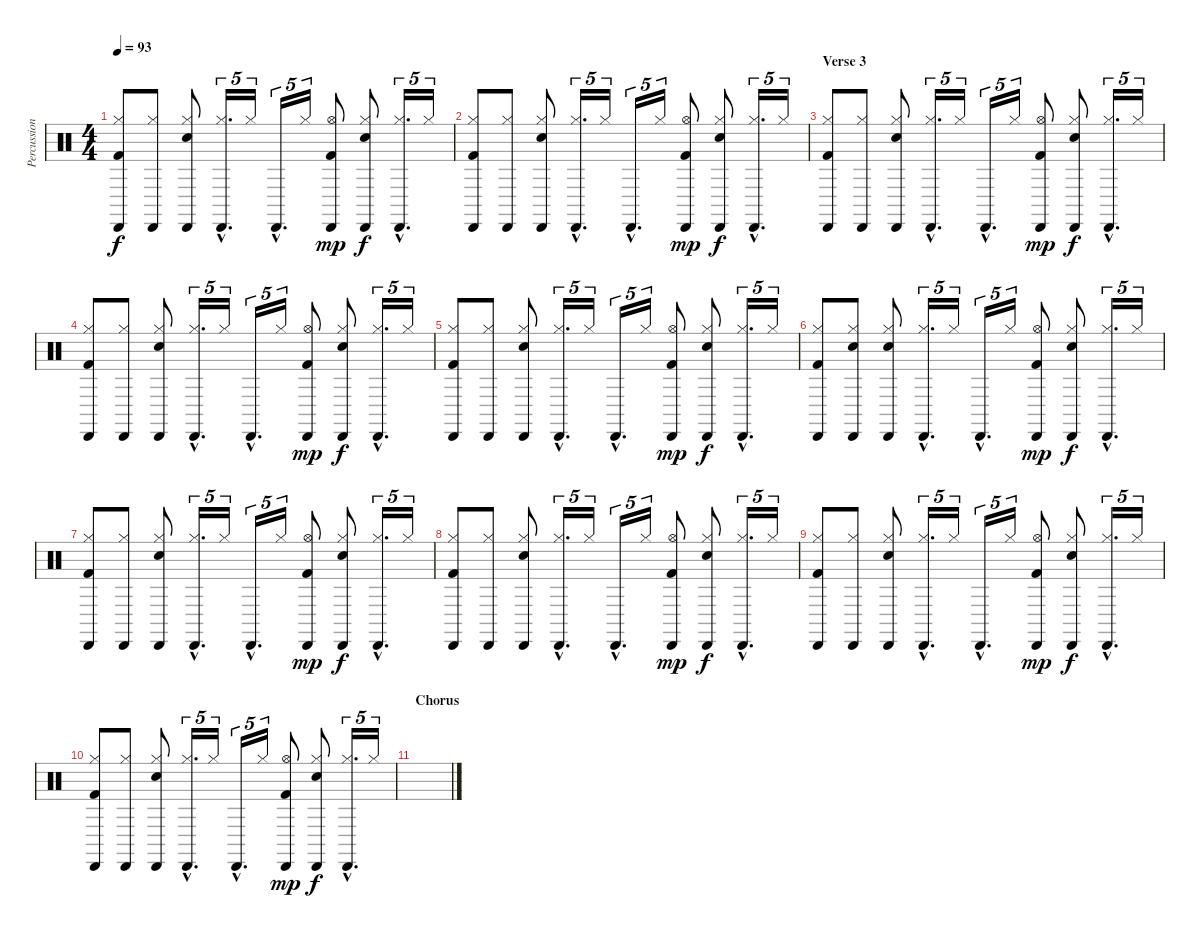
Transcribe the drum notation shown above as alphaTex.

\track ("Percussion" "Percussion") {instrument percussion}
\staff {score}
\articulation defaults
\ts (4 4)
\tempo 93
\clef neutral
\ks c
("Cabasa (hit)" "Hi-Hat (closed)" "Kick (hit) 2").8{dy f} ("Cabasa (hit)" "Hi-Hat (closed)").8 ("Cabasa (hit)" "Hi-Hat (closed)" "Snare (hit) 2").8 ("Cabasa (hit)"{hac} "Hi-Hat (closed)"{hac}).16{d tu (5 4)} "Hi-Hat (closed)".16{tu (5 4)} "Cabasa (hit)"{hac}.16{d tu (5 4)} "Hi-Hat (closed)".16{tu (5 4)} ("Cabasa (hit)" "Hi-Hat (open)" "Kick (hit) 2").8{dy mp} ("Cabasa (hit)" "Hi-Hat (closed)" "Snare (hit) 2").8{dy f} ("Cabasa (hit)"{hac} "Hi-Hat (closed)"{hac}).16{d tu (5 4)} "Hi-Hat (closed)".16{tu (5 4)} |
("Cabasa (hit)" "Hi-Hat (closed)" "Kick (hit) 2").8 ("Cabasa (hit)" "Hi-Hat (closed)").8 ("Cabasa (hit)" "Hi-Hat (closed)" "Snare (hit) 2").8 ("Cabasa (hit)"{hac} "Hi-Hat (closed)"{hac}).16{d tu (5 4)} "Hi-Hat (closed)".16{tu (5 4)} "Cabasa (hit)"{hac}.16{d tu (5 4)} "Hi-Hat (closed)".16{tu (5 4)} ("Cabasa (hit)" "Hi-Hat (open)" "Kick (hit) 2").8{dy mp} ("Cabasa (hit)" "Hi-Hat (closed)" "Snare (hit) 2").8{dy f} ("Cabasa (hit)"{hac} "Hi-Hat (closed)"{hac}).16{d tu (5 4)} "Hi-Hat (closed)".16{tu (5 4)} |
\section ("" "Verse 3")
("Cabasa (hit)" "Hi-Hat (closed)" "Kick (hit) 2").8 ("Cabasa (hit)" "Hi-Hat (closed)").8 ("Cabasa (hit)" "Hi-Hat (closed)" "Snare (hit) 2").8 ("Cabasa (hit)"{hac} "Hi-Hat (closed)"{hac}).16{d tu (5 4)} "Hi-Hat (closed)".16{tu (5 4)} "Cabasa (hit)"{hac}.16{d tu (5 4)} "Hi-Hat (closed)".16{tu (5 4)} ("Cabasa (hit)" "Hi-Hat (open)" "Kick (hit) 2").8{dy mp} ("Cabasa (hit)" "Hi-Hat (closed)" "Snare (hit) 2").8{dy f} ("Cabasa (hit)"{hac} "Hi-Hat (closed)"{hac}).16{d tu (5 4)} "Hi-Hat (closed)".16{tu (5 4)} |
("Cabasa (hit)" "Hi-Hat (closed)" "Kick (hit) 2").8 ("Cabasa (hit)" "Hi-Hat (closed)").8 ("Cabasa (hit)" "Hi-Hat (closed)" "Snare (hit) 2").8 ("Cabasa (hit)"{hac} "Hi-Hat (closed)"{hac}).16{d tu (5 4)} "Hi-Hat (closed)".16{tu (5 4)} "Cabasa (hit)"{hac}.16{d tu (5 4)} "Hi-Hat (closed)".16{tu (5 4)} ("Cabasa (hit)" "Hi-Hat (open)" "Kick (hit) 2").8{dy mp} ("Cabasa (hit)" "Hi-Hat (closed)" "Snare (hit) 2").8{dy f} ("Cabasa (hit)"{hac} "Hi-Hat (closed)"{hac}).16{d tu (5 4)} "Hi-Hat (closed)".16{tu (5 4)} |
("Cabasa (hit)" "Hi-Hat (closed)" "Kick (hit) 2").8 ("Cabasa (hit)" "Hi-Hat (closed)").8 ("Cabasa (hit)" "Hi-Hat (closed)" "Snare (hit) 2").8 ("Cabasa (hit)"{hac} "Hi-Hat (closed)"{hac}).16{d tu (5 4)} "Hi-Hat (closed)".16{tu (5 4)} "Cabasa (hit)"{hac}.16{d tu (5 4)} "Hi-Hat (closed)".16{tu (5 4)} ("Cabasa (hit)" "Hi-Hat (open)" "Kick (hit) 2").8{dy mp} ("Cabasa (hit)" "Hi-Hat (closed)" "Snare (hit) 2").8{dy f} ("Cabasa (hit)"{hac} "Hi-Hat (closed)"{hac}).16{d tu (5 4)} "Hi-Hat (closed)".16{tu (5 4)} |
("Cabasa (hit)" "Hi-Hat (closed)" "Kick (hit) 2").8 ("Cabasa (hit)" "Hi-Hat (closed)" "Snare (hit) 2").8 ("Cabasa (hit)" "Hi-Hat (closed)" "Snare (hit) 2").8 ("Cabasa (hit)"{hac} "Hi-Hat (closed)"{hac}).16{d tu (5 4)} "Hi-Hat (closed)".16{tu (5 4)} "Cabasa (hit)"{hac}.16{d tu (5 4)} "Hi-Hat (closed)".16{tu (5 4)} ("Cabasa (hit)" "Hi-Hat (open)" "Kick (hit) 2").8{dy mp} ("Cabasa (hit)" "Hi-Hat (closed)" "Snare (hit) 2").8{dy f} ("Cabasa (hit)"{hac} "Hi-Hat (closed)"{hac}).16{d tu (5 4)} "Hi-Hat (closed)".16{tu (5 4)} |
("Cabasa (hit)" "Hi-Hat (closed)" "Kick (hit) 2").8 ("Cabasa (hit)" "Hi-Hat (closed)").8 ("Cabasa (hit)" "Hi-Hat (closed)" "Snare (hit) 2").8 ("Cabasa (hit)"{hac} "Hi-Hat (closed)"{hac}).16{d tu (5 4)} "Hi-Hat (closed)".16{tu (5 4)} "Cabasa (hit)"{hac}.16{d tu (5 4)} "Hi-Hat (closed)".16{tu (5 4)} ("Cabasa (hit)" "Hi-Hat (open)" "Kick (hit) 2").8{dy mp} ("Cabasa (hit)" "Hi-Hat (closed)" "Snare (hit) 2").8{dy f} ("Cabasa (hit)"{hac} "Hi-Hat (closed)"{hac}).16{d tu (5 4)} "Hi-Hat (closed)".16{tu (5 4)} |
("Cabasa (hit)" "Hi-Hat (closed)" "Kick (hit) 2").8 ("Cabasa (hit)" "Hi-Hat (closed)").8 ("Cabasa (hit)" "Hi-Hat (closed)" "Snare (hit) 2").8 ("Cabasa (hit)"{hac} "Hi-Hat (closed)"{hac}).16{d tu (5 4)} "Hi-Hat (closed)".16{tu (5 4)} "Cabasa (hit)"{hac}.16{d tu (5 4)} "Hi-Hat (closed)".16{tu (5 4)} ("Cabasa (hit)" "Hi-Hat (open)" "Kick (hit) 2").8{dy mp} ("Cabasa (hit)" "Hi-Hat (closed)" "Snare (hit) 2").8{dy f} ("Cabasa (hit)"{hac} "Hi-Hat (closed)"{hac}).16{d tu (5 4)} "Hi-Hat (closed)".16{tu (5 4)} |
("Cabasa (hit)" "Hi-Hat (closed)" "Kick (hit) 2").8{volume 16} ("Cabasa (hit)" "Hi-Hat (closed)").8 ("Cabasa (hit)" "Hi-Hat (closed)" "Snare (hit) 2").8 ("Cabasa (hit)"{hac} "Hi-Hat (closed)"{hac}).16{d tu (5 4)} "Hi-Hat (closed)".16{tu (5 4)} "Cabasa (hit)"{hac}.16{d tu (5 4)} "Hi-Hat (closed)".16{tu (5 4)} ("Cabasa (hit)" "Hi-Hat (open)" "Kick (hit) 2").8{dy mp} ("Cabasa (hit)" "Hi-Hat (closed)" "Snare (hit) 2").8{dy f} ("Cabasa (hit)"{hac} "Hi-Hat (closed)"{hac}).16{d tu (5 4)} "Hi-Hat (closed)".16{tu (5 4)} |
("Cabasa (hit)" "Hi-Hat (closed)" "Kick (hit) 2").8 ("Cabasa (hit)" "Hi-Hat (closed)").8 ("Cabasa (hit)" "Hi-Hat (closed)" "Snare (hit) 2").8 ("Cabasa (hit)"{hac} "Hi-Hat (closed)"{hac}).16{d tu (5 4)} "Hi-Hat (closed)".16{tu (5 4)} "Cabasa (hit)"{hac}.16{d tu (5 4)} "Hi-Hat (closed)".16{tu (5 4)} ("Cabasa (hit)" "Hi-Hat (open)" "Kick (hit) 2").8{dy mp} ("Cabasa (hit)" "Hi-Hat (closed)" "Snare (hit) 2").8{dy f} ("Cabasa (hit)"{hac} "Hi-Hat (closed)"{hac}).16{d tu (5 4)} "Hi-Hat (closed)".16{tu (5 4)} |
\section ("" "Chorus")
